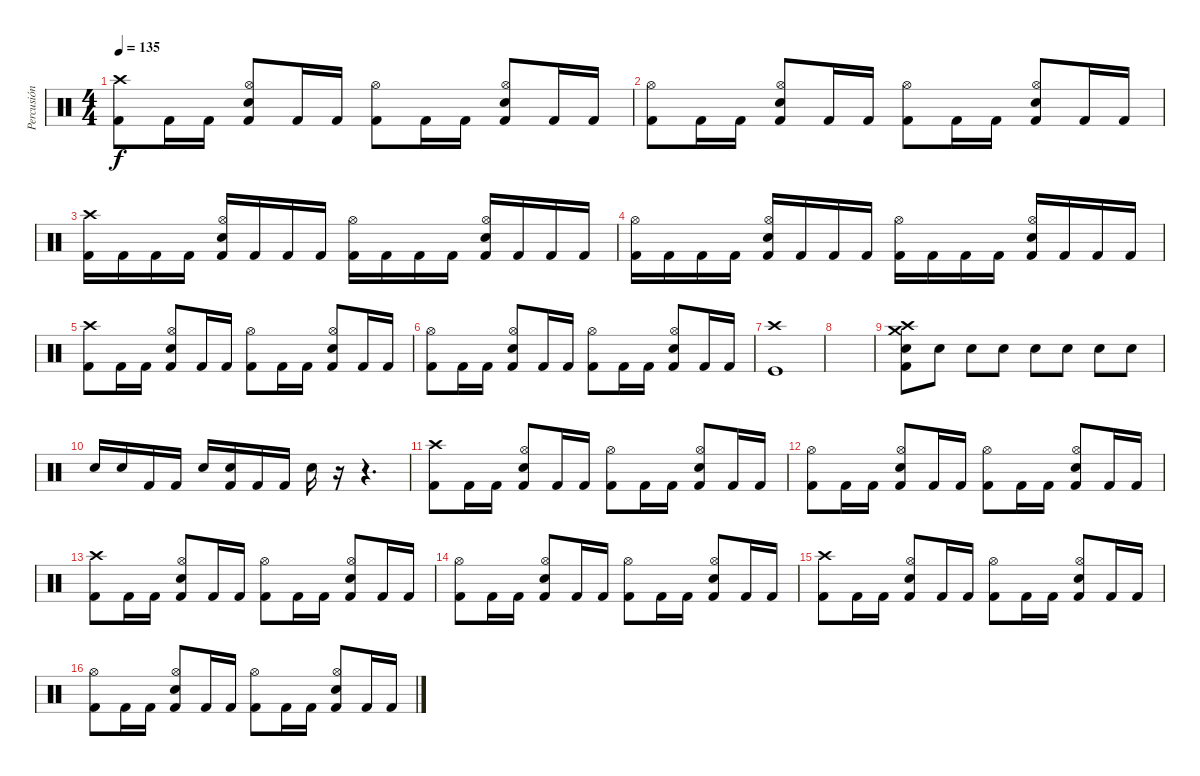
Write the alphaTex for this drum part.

\track ("Percusión" "Percusión") {instrument percussion}
\staff {score}
\articulation defaults
\ts (4 4)
\tempo 135
\clef neutral
\ks c
("Kick (hit) 2" "Crash high (hit)").8{dy f} "Kick (hit) 2".16 "Kick (hit) 2".16 ("Kick (hit) 2" "Hi-Hat (open)" "Snare (hit) 2").8 "Kick (hit) 2".16 "Kick (hit) 2".16 ("Kick (hit) 2" "Hi-Hat (open)").8 "Kick (hit) 2".16 "Kick (hit) 2".16 ("Kick (hit) 2" "Hi-Hat (open)" "Snare (hit) 2").8 "Kick (hit) 2".16 "Kick (hit) 2".16 |
("Kick (hit) 2" "Hi-Hat (open)").8 "Kick (hit) 2".16 "Kick (hit) 2".16 ("Kick (hit) 2" "Hi-Hat (open)" "Snare (hit) 2").8 "Kick (hit) 2".16 "Kick (hit) 2".16 ("Kick (hit) 2" "Hi-Hat (open)").8 "Kick (hit) 2".16 "Kick (hit) 2".16 ("Kick (hit) 2" "Hi-Hat (open)" "Snare (hit) 2").8 "Kick (hit) 2".16 "Kick (hit) 2".16 |
("Kick (hit) 2" "Crash high (hit)").16 "Kick (hit) 2".16 "Kick (hit) 2".16 "Kick (hit) 2".16 ("Kick (hit) 2" "Hi-Hat (open)" "Snare (hit) 2").16 "Kick (hit) 2".16 "Kick (hit) 2".16 "Kick (hit) 2".16 ("Kick (hit) 2" "Hi-Hat (open)").16 "Kick (hit) 2".16 "Kick (hit) 2".16 "Kick (hit) 2".16 ("Kick (hit) 2" "Hi-Hat (open)" "Snare (hit) 2").16 "Kick (hit) 2".16 "Kick (hit) 2".16 "Kick (hit) 2".16 |
("Kick (hit) 2" "Hi-Hat (open)").16 "Kick (hit) 2".16 "Kick (hit) 2".16 "Kick (hit) 2".16 ("Kick (hit) 2" "Hi-Hat (open)" "Snare (hit) 2").16 "Kick (hit) 2".16 "Kick (hit) 2".16 "Kick (hit) 2".16 ("Kick (hit) 2" "Hi-Hat (open)").16 "Kick (hit) 2".16 "Kick (hit) 2".16 "Kick (hit) 2".16 ("Kick (hit) 2" "Hi-Hat (open)" "Snare (hit) 2").16 "Kick (hit) 2".16 "Kick (hit) 2".16 "Kick (hit) 2".16 |
("Kick (hit) 2" "Crash high (hit)").8 "Kick (hit) 2".16 "Kick (hit) 2".16 ("Kick (hit) 2" "Hi-Hat (open)" "Snare (hit) 2").8 "Kick (hit) 2".16 "Kick (hit) 2".16 ("Kick (hit) 2" "Hi-Hat (open)").8 "Kick (hit) 2".16 "Kick (hit) 2".16 ("Kick (hit) 2" "Hi-Hat (open)" "Snare (hit) 2").8 "Kick (hit) 2".16 "Kick (hit) 2".16 |
("Kick (hit) 2" "Hi-Hat (open)").8 "Kick (hit) 2".16 "Kick (hit) 2".16 ("Kick (hit) 2" "Hi-Hat (open)" "Snare (hit) 2").8 "Kick (hit) 2".16 "Kick (hit) 2".16 ("Kick (hit) 2" "Hi-Hat (open)").8 "Kick (hit) 2".16 "Kick (hit) 2".16 ("Kick (hit) 2" "Hi-Hat (open)" "Snare (hit) 2").8 "Kick (hit) 2".16 "Kick (hit) 2".16 |
("Crash high (hit)" "Kick (hit)").1 |
|
("Snare (hit) 2" "Kick (hit) 2" "Crash high (hit)" "Crash medium (hit)").8 "Snare (hit) 2".8 "Snare (hit) 2".8 "Snare (hit) 2".8 "Snare (hit) 2".8 "Snare (hit) 2".8 "Snare (hit) 2".8 "Snare (hit) 2".8 |
"Snare (hit) 2".16 "Snare (hit) 2".16 "Kick (hit) 2".16 "Kick (hit) 2".16 "Snare (hit) 2".16 ("Kick (hit) 2" "Snare (hit) 2").16 "Kick (hit) 2".16 "Kick (hit) 2".16 "Snare (hit) 2".16 r.16 r.4{d} |
("Kick (hit) 2" "Crash high (hit)").8 "Kick (hit) 2".16 "Kick (hit) 2".16 ("Kick (hit) 2" "Hi-Hat (open)" "Snare (hit) 2").8 "Kick (hit) 2".16 "Kick (hit) 2".16 ("Kick (hit) 2" "Hi-Hat (open)").8 "Kick (hit) 2".16 "Kick (hit) 2".16 ("Kick (hit) 2" "Hi-Hat (open)" "Snare (hit) 2").8 "Kick (hit) 2".16 "Kick (hit) 2".16 |
("Kick (hit) 2" "Hi-Hat (open)").8 "Kick (hit) 2".16 "Kick (hit) 2".16 ("Kick (hit) 2" "Hi-Hat (open)" "Snare (hit) 2").8 "Kick (hit) 2".16 "Kick (hit) 2".16 ("Kick (hit) 2" "Hi-Hat (open)").8 "Kick (hit) 2".16 "Kick (hit) 2".16 ("Kick (hit) 2" "Hi-Hat (open)" "Snare (hit) 2").8 "Kick (hit) 2".16 "Kick (hit) 2".16 |
("Kick (hit) 2" "Crash high (hit)").8 "Kick (hit) 2".16 "Kick (hit) 2".16 ("Kick (hit) 2" "Hi-Hat (open)" "Snare (hit) 2").8 "Kick (hit) 2".16 "Kick (hit) 2".16 ("Kick (hit) 2" "Hi-Hat (open)").8 "Kick (hit) 2".16 "Kick (hit) 2".16 ("Kick (hit) 2" "Hi-Hat (open)" "Snare (hit) 2").8 "Kick (hit) 2".16 "Kick (hit) 2".16 |
("Kick (hit) 2" "Hi-Hat (open)").8 "Kick (hit) 2".16 "Kick (hit) 2".16 ("Kick (hit) 2" "Hi-Hat (open)" "Snare (hit) 2").8 "Kick (hit) 2".16 "Kick (hit) 2".16 ("Kick (hit) 2" "Hi-Hat (open)").8 "Kick (hit) 2".16 "Kick (hit) 2".16 ("Kick (hit) 2" "Hi-Hat (open)" "Snare (hit) 2").8 "Kick (hit) 2".16 "Kick (hit) 2".16 |
("Kick (hit) 2" "Crash high (hit)").8 "Kick (hit) 2".16 "Kick (hit) 2".16 ("Kick (hit) 2" "Hi-Hat (open)" "Snare (hit) 2").8 "Kick (hit) 2".16 "Kick (hit) 2".16 ("Kick (hit) 2" "Hi-Hat (open)").8 "Kick (hit) 2".16 "Kick (hit) 2".16 ("Kick (hit) 2" "Hi-Hat (open)" "Snare (hit) 2").8 "Kick (hit) 2".16 "Kick (hit) 2".16 |
("Kick (hit) 2" "Hi-Hat (open)").8 "Kick (hit) 2".16 "Kick (hit) 2".16 ("Kick (hit) 2" "Hi-Hat (open)" "Snare (hit) 2").8 "Kick (hit) 2".16 "Kick (hit) 2".16 ("Kick (hit) 2" "Hi-Hat (open)").8 "Kick (hit) 2".16 "Kick (hit) 2".16 ("Kick (hit) 2" "Hi-Hat (open)" "Snare (hit) 2").8 "Kick (hit) 2".16 "Kick (hit) 2".16
